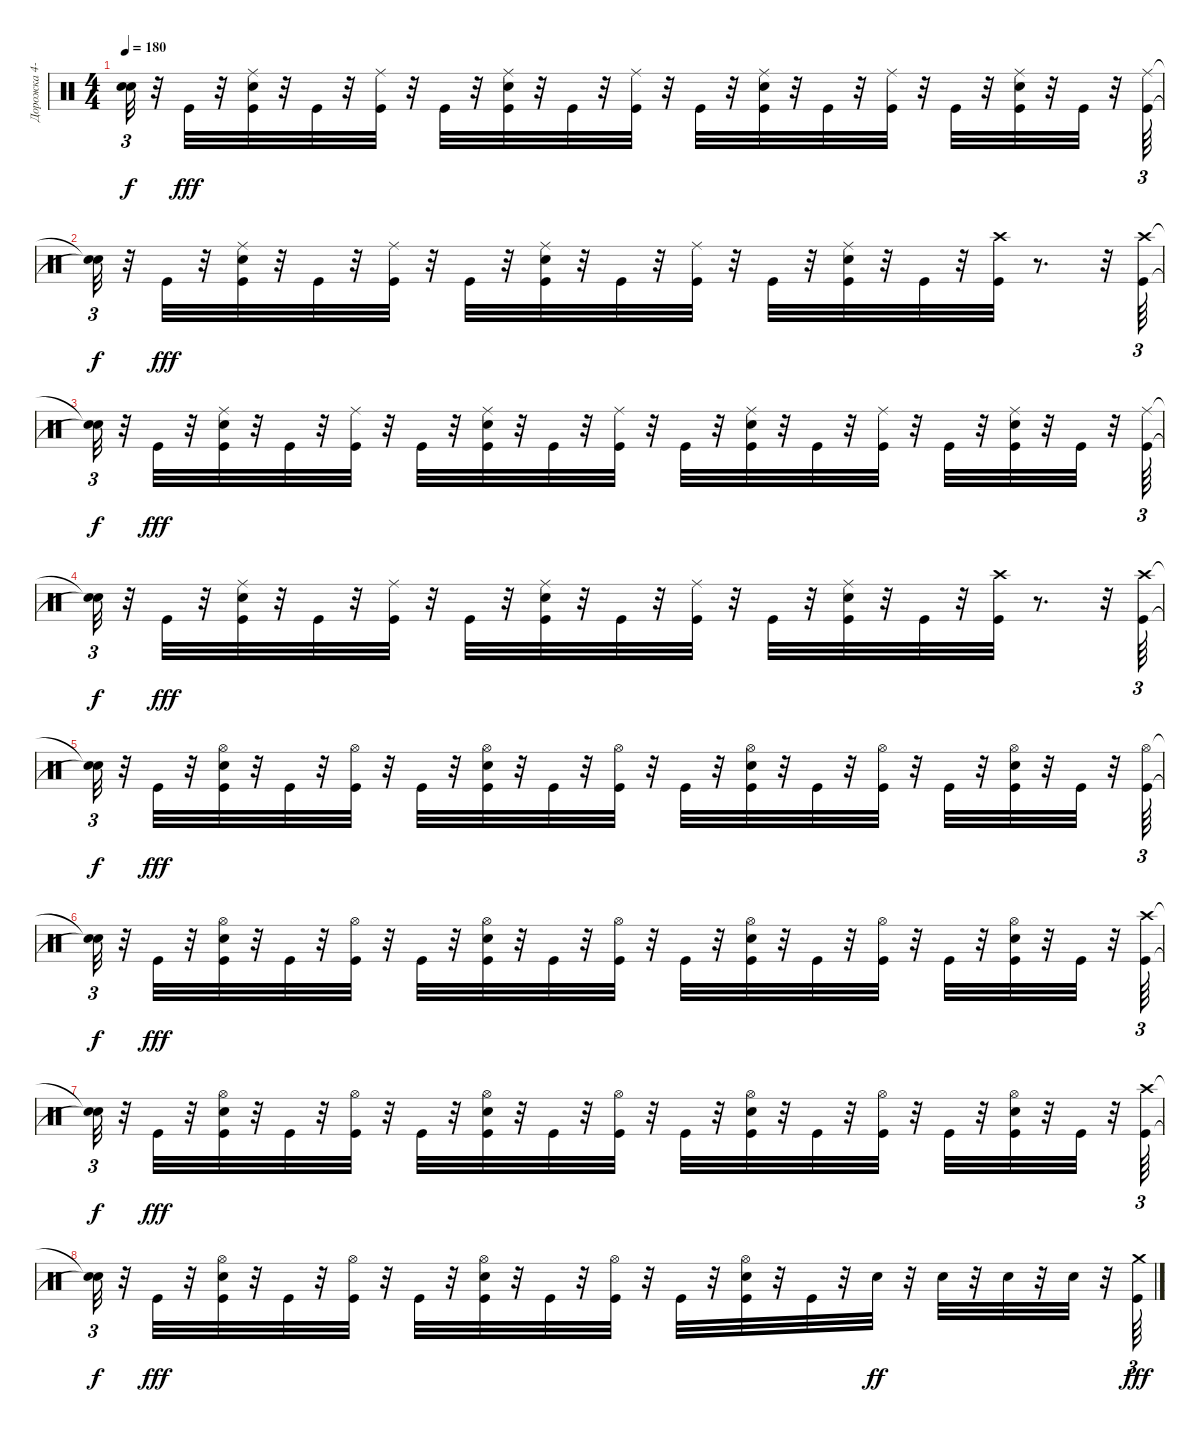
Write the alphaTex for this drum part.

\track ("Дорожка 4-10-11" "Дорожка 4-") {instrument percussion}
\staff {score}
\articulation defaults
\ts (4 4)
\tempo 180
\clef neutral
\ks c
("Snare (hit)"{t} "Snare (hit)"{t}).32{tu (3 2) dy f} r.32 "Kick (hit)".32{dy fff} r.32 ("Snare (hit) 2" "Ride (middle)" "Kick (hit)").32 r.32 "Kick (hit)".32 r.32 ("Ride (middle)" "Kick (hit)").32 r.32 "Kick (hit)".32 r.32 ("Ride (middle)" "Snare (hit) 2" "Kick (hit)").32 r.32 "Kick (hit)".32 r.32 ("Ride (middle)" "Kick (hit)").32 r.32 "Kick (hit)".32 r.32 ("Ride (middle)" "Snare (hit) 2" "Kick (hit)").32 r.32 "Kick (hit)".32 r.32 ("Ride (middle)" "Kick (hit)").32 r.32 "Kick (hit)".32 r.32 ("Ride (middle)" "Snare (hit) 2" "Kick (hit)").32 r.32 "Kick (hit)".32 r.32 ("Ride (middle)" "Kick (hit)").64{tu (3 2)} |
("Snare (hit)"{t} "Snare (hit)"{t}).32{tu (3 2) dy f} r.32 "Kick (hit)".32{dy fff} r.32 ("Snare (hit) 2" "Ride (middle)" "Kick (hit)").32 r.32 "Kick (hit)".32 r.32 ("Ride (middle)" "Kick (hit)").32 r.32 "Kick (hit)".32 r.32 ("Ride (middle)" "Snare (hit) 2" "Kick (hit)").32 r.32 "Kick (hit)".32 r.32 ("Ride (middle)" "Kick (hit)").32 r.32 "Kick (hit)".32 r.32 ("Ride (middle)" "Snare (hit) 2" "Kick (hit)").32 r.32 "Kick (hit)".32 r.32 ("Crash high (hit)" "Kick (hit)").32 r.8{d} r.32 ("Crash high (hit)" "Kick (hit)").64{tu (3 2)} |
("Snare (hit)"{t} "Snare (hit)"{t}).32{tu (3 2) dy f} r.32 "Kick (hit)".32{dy fff} r.32 ("Snare (hit) 2" "Ride (middle)" "Kick (hit)").32 r.32 "Kick (hit)".32 r.32 ("Ride (middle)" "Kick (hit)").32 r.32 "Kick (hit)".32 r.32 ("Ride (middle)" "Snare (hit) 2" "Kick (hit)").32 r.32 "Kick (hit)".32 r.32 ("Ride (middle)" "Kick (hit)").32 r.32 "Kick (hit)".32 r.32 ("Ride (middle)" "Snare (hit) 2" "Kick (hit)").32 r.32 "Kick (hit)".32 r.32 ("Ride (middle)" "Kick (hit)").32 r.32 "Kick (hit)".32 r.32 ("Ride (middle)" "Snare (hit) 2" "Kick (hit)").32 r.32 "Kick (hit)".32 r.32 ("Ride (middle)" "Kick (hit)").64{tu (3 2)} |
("Snare (hit)"{t} "Snare (hit)"{t}).32{tu (3 2) dy f} r.32 "Kick (hit)".32{dy fff} r.32 ("Snare (hit) 2" "Ride (middle)" "Kick (hit)").32 r.32 "Kick (hit)".32 r.32 ("Ride (middle)" "Kick (hit)").32 r.32 "Kick (hit)".32 r.32 ("Ride (middle)" "Snare (hit) 2" "Kick (hit)").32 r.32 "Kick (hit)".32 r.32 ("Ride (middle)" "Kick (hit)").32 r.32 "Kick (hit)".32 r.32 ("Ride (middle)" "Snare (hit) 2" "Kick (hit)").32 r.32 "Kick (hit)".32 r.32 ("Crash high (hit)" "Kick (hit)").32 r.8{d} r.32 ("Crash high (hit)" "Kick (hit)").64{tu (3 2)} |
("Snare (hit)"{t} "Snare (hit)"{t}).32{tu (3 2) dy f} r.32 "Kick (hit)".32{dy fff} r.32 ("Hi-Hat (open)" "Snare (hit) 2" "Kick (hit)").32 r.32 "Kick (hit)".32 r.32 ("Hi-Hat (open)" "Kick (hit)").32 r.32 "Kick (hit)".32 r.32 ("Hi-Hat (open)" "Snare (hit) 2" "Kick (hit)").32 r.32 "Kick (hit)".32 r.32 ("Hi-Hat (open)" "Kick (hit)").32 r.32 "Kick (hit)".32 r.32 ("Hi-Hat (open)" "Snare (hit) 2" "Kick (hit)").32 r.32 "Kick (hit)".32 r.32 ("Hi-Hat (open)" "Kick (hit)").32 r.32 "Kick (hit)".32 r.32 ("Hi-Hat (open)" "Snare (hit) 2" "Kick (hit)").32 r.32 "Kick (hit)".32 r.32 ("Hi-Hat (open)" "Kick (hit)").64{tu (3 2)} |
("Snare (hit)"{t} "Snare (hit)"{t}).32{tu (3 2) dy f} r.32 "Kick (hit)".32{dy fff} r.32 ("Hi-Hat (open)" "Snare (hit) 2" "Kick (hit)").32 r.32 "Kick (hit)".32 r.32 ("Hi-Hat (open)" "Kick (hit)").32 r.32 "Kick (hit)".32 r.32 ("Hi-Hat (open)" "Snare (hit) 2" "Kick (hit)").32 r.32 "Kick (hit)".32 r.32 ("Hi-Hat (open)" "Kick (hit)").32 r.32 "Kick (hit)".32 r.32 ("Hi-Hat (open)" "Snare (hit) 2" "Kick (hit)").32 r.32 "Kick (hit)".32 r.32 ("Hi-Hat (open)" "Kick (hit)").32 r.32 "Kick (hit)".32 r.32 ("Hi-Hat (open)" "Snare (hit) 2" "Kick (hit)").32 r.32 "Kick (hit)".32 r.32 ("Crash high (hit)" "Kick (hit)").64{tu (3 2)} |
("Snare (hit)"{t} "Snare (hit)"{t}).32{tu (3 2) dy f} r.32 "Kick (hit)".32{dy fff} r.32 ("Hi-Hat (open)" "Snare (hit) 2" "Kick (hit)").32 r.32 "Kick (hit)".32 r.32 ("Hi-Hat (open)" "Kick (hit)").32 r.32 "Kick (hit)".32 r.32 ("Hi-Hat (open)" "Snare (hit) 2" "Kick (hit)").32 r.32 "Kick (hit)".32 r.32 ("Hi-Hat (open)" "Kick (hit)").32 r.32 "Kick (hit)".32 r.32 ("Hi-Hat (open)" "Snare (hit) 2" "Kick (hit)").32 r.32 "Kick (hit)".32 r.32 ("Hi-Hat (open)" "Kick (hit)").32 r.32 "Kick (hit)".32 r.32 ("Hi-Hat (open)" "Snare (hit) 2" "Kick (hit)").32 r.32 "Kick (hit)".32 r.32 ("Crash high (hit)" "Kick (hit)").64{tu (3 2)} |
("Snare (hit)"{t} "Snare (hit)"{t}).32{tu (3 2) dy f} r.32 "Kick (hit)".32{dy fff} r.32 ("Hi-Hat (open)" "Snare (hit) 2" "Kick (hit)").32 r.32 "Kick (hit)".32 r.32 ("Hi-Hat (open)" "Kick (hit)").32 r.32 "Kick (hit)".32 r.32 ("Hi-Hat (open)" "Snare (hit) 2" "Kick (hit)").32 r.32 "Kick (hit)".32 r.32 ("Hi-Hat (open)" "Kick (hit)").32 r.32 "Kick (hit)".32 r.32 ("Hi-Hat (open)" "Snare (hit) 2" "Kick (hit)").32 r.32 "Kick (hit)".32 r.32 "Snare (hit) 2".32{dy ff} r.32 "Snare (hit) 2".32 r.32 "Snare (hit) 2".32 r.32 "Snare (hit) 2".32 r.32 ("Crash medium (hit)" "Kick (hit)").64{tu (3 2) dy fff}
